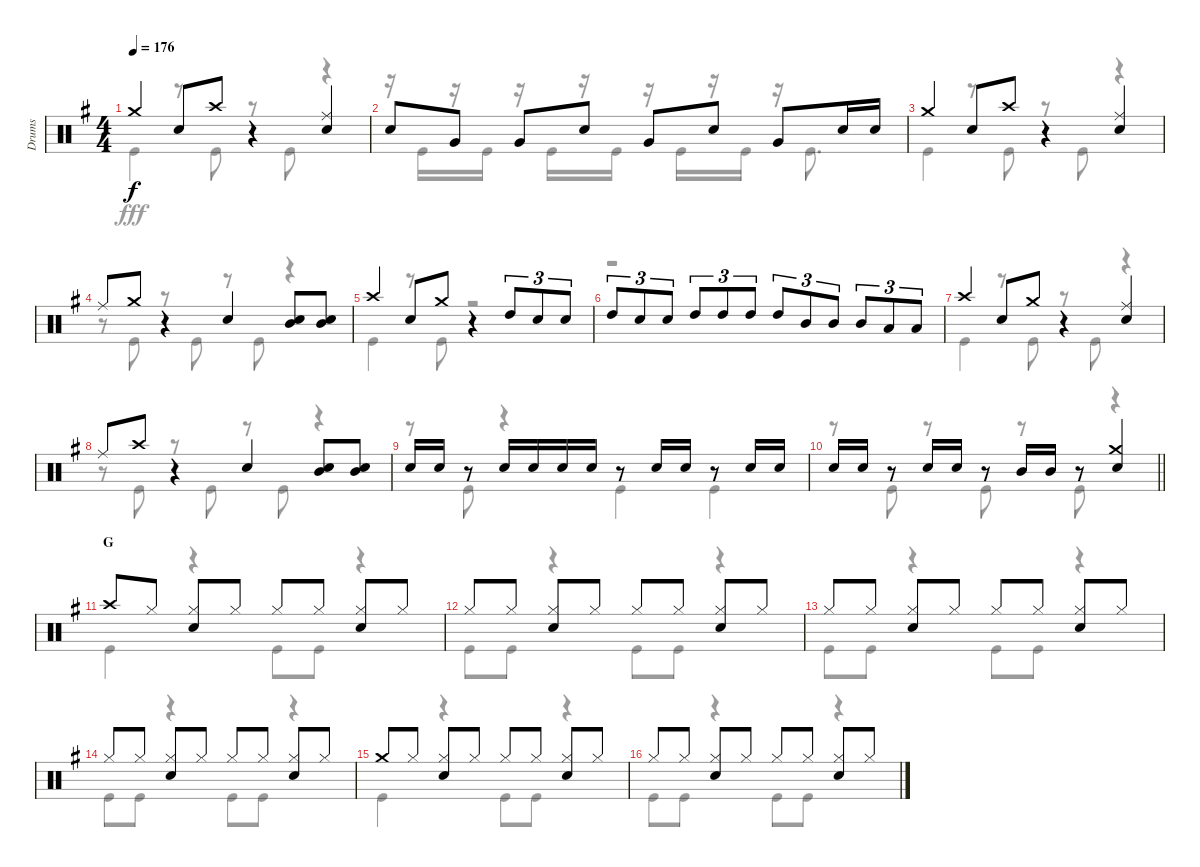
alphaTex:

\track ("Drums" "Drums") {instrument percussion}
\staff {score}
\articulation defaults
\voice
\ts (4 4)
\tempo 176
\clef neutral
\ks g "Crash medium (hit)".4{dy f} "Snare (hit) 2".8 "Crash high (hit)".8
r.4 ("Ride (middle)" "Snare (hit) 2").4 |
"Snare (hit) 2".8 "Very Low Tom (hit)".8 "Very Low Tom (hit)".8 "Snare (hit) 2".8 "Very Low Tom (hit)".8 "Snare (hit) 2".8 "Very Low Tom (hit)".8 "Snare (hit) 2".16 "Snare (hit) 2".16 |
"Crash medium (hit)".4 "Snare (hit) 2".8 "Crash high (hit)".8 r.4 ("Ride (middle)" "Snare (hit) 2").4 |
"Ride (middle)".8 "Crash medium (hit)".8 r.4 "Snare (hit) 2".4 ("Mid Tom (hit)" "Snare (hit) 2").8 ("Mid Tom (hit)" "Snare (hit) 2").8 |
"Crash high (hit)".4 "Snare (hit) 2".8 "Crash medium (hit)".8 r.4 "High Tom (hit)".8{tu (3 2)} "Snare (hit) 2".8{tu (3 2)} "Snare (hit) 2".8{tu (3 2)} |
"High Tom (hit)".8{tu (3 2)} "Snare (hit) 2".8{tu (3 2)} "Snare (hit) 2".8{tu (3 2)} "High Tom (hit)".8{tu (3 2)} "High Tom (hit)".8{tu (3 2)} "High Tom (hit)".8{tu (3 2)} "High Tom (hit)".8{tu (3 2)} "Mid Tom (hit)".8{tu (3 2)} "Mid Tom (hit)".8{tu (3 2)} "Mid Tom (hit)".8{tu (3 2)} "Low Tom (hit)".8{tu (3 2)} "Low Tom (hit)".8{tu (3 2)} |
"Crash high (hit)".4 "Snare (hit) 2".8 "Crash medium (hit)".8 r.4 ("Ride (middle)" "Snare (hit) 2").4 |
"Ride (middle)".8 "Crash high (hit)".8 r.4 "Snare (hit) 2".4 ("Mid Tom (hit)" "Snare (hit) 2").8 ("Mid Tom (hit)" "Snare (hit) 2").8 |
"Snare (hit) 2".16 "Snare (hit) 2".16 r.8 "Snare (hit) 2".16 "Snare (hit) 2".16 "Snare (hit) 2".16 "Snare (hit) 2".16 r.8 "Snare (hit) 2".16 "Snare (hit) 2".16 r.8 "Snare (hit) 2".16 "Snare (hit) 2".16 |
\barLineRight lightlight "Snare (hit) 2".16 "Snare (hit) 2".16
r.8 "Snare (hit) 2".16 "Snare (hit) 2".16 r.8 "Mid Tom (hit)".16 "Mid Tom (hit)".16 r.8 ("Crash medium (hit)" "Snare (hit) 2").4 |
\section ("" "G")
"Crash high (hit)".8 "Hi-Hat (closed)".8 ("Hi-Hat (closed)" "Snare (hit) 2").8 "Hi-Hat (closed)".8 "Hi-Hat (closed)".8 "Hi-Hat (closed)".8 ("Hi-Hat (closed)" "Snare (hit) 2").8 "Hi-Hat (closed)".8 |
"Hi-Hat (closed)".8 "Hi-Hat (closed)".8 ("Hi-Hat (closed)" "Snare (hit) 2").8 "Hi-Hat (closed)".8 "Hi-Hat (closed)".8 "Hi-Hat (closed)".8 ("Hi-Hat (closed)" "Snare (hit) 2").8 "Hi-Hat (closed)".8 |
"Hi-Hat (closed)".8 "Hi-Hat (closed)".8 ("Hi-Hat (closed)" "Snare (hit) 2").8 "Hi-Hat (closed)".8 "Hi-Hat (closed)".8 "Hi-Hat (closed)".8 ("Hi-Hat (closed)" "Snare (hit) 2").8 "Hi-Hat (closed)".8 |
"Hi-Hat (closed)".8 "Hi-Hat (closed)".8 ("Hi-Hat (closed)" "Snare (hit) 2").8 "Hi-Hat (closed)".8 "Hi-Hat (closed)".8 "Hi-Hat (closed)".8 ("Hi-Hat (closed)" "Snare (hit) 2").8 "Hi-Hat (closed)".8 |
"Crash medium (hit)".8 "Hi-Hat (closed)".8 ("Hi-Hat (closed)" "Snare (hit) 2").8 "Hi-Hat (closed)".8 "Hi-Hat (closed)".8 "Hi-Hat (closed)".8 ("Hi-Hat (closed)" "Snare (hit) 2").8 "Hi-Hat (closed)".8 |
"Hi-Hat (closed)".8 "Hi-Hat (closed)".8 ("Hi-Hat (closed)" "Snare (hit) 2").8 "Hi-Hat (closed)".8 "Hi-Hat (closed)".8 "Hi-Hat (closed)".8 ("Hi-Hat (closed)" "Snare (hit) 2").8 "Hi-Hat (closed)".8
\voice
\clef neutral
\ottava regular
\simile none
\ks g "Kick (hit)".4{dy fff}
r.8 "Kick (hit)".8 r.8 "Kick (hit)".8 r.4 |
r.16 "Kick (hit)".16 r.16 "Kick (hit)".16 r.16 "Kick (hit)".16 r.16 "Kick (hit)".16 r.16 "Kick (hit)".16 r.16 "Kick (hit)".16 r.16 "Kick (hit)".8{d} |
"Kick (hit)".4 r.8 "Kick (hit)".8 r.8 "Kick (hit)".8 r.4 |
r.8 "Kick (hit)".8 r.8 "Kick (hit)".8 r.8 "Kick (hit)".8 r.4 |
"Kick (hit)".4 r.8 "Kick (hit)".8 r.2 |
r.1 |
"Kick (hit)".4 r.8 "Kick (hit)".8 r.8 "Kick (hit)".8 r.4 |
r.8 "Kick (hit)".8 r.8 "Kick (hit)".8 r.8 "Kick (hit)".8 r.4 |
r.8 "Kick (hit)".8 r.4 "Kick (hit)".4 "Kick (hit)".4 |
\barLineRight lightlight
r.8 "Kick (hit)".8 r.8 "Kick (hit)".8 r.8 "Kick (hit)".8 r.4 |
"Kick (hit)".4 r.4 "Kick (hit)".8 "Kick (hit)".8 r.4 |
"Kick (hit)".8 "Kick (hit)".8 r.4 "Kick (hit)".8 "Kick (hit)".8 r.4 |
"Kick (hit)".8 "Kick (hit)".8 r.4 "Kick (hit)".8 "Kick (hit)".8 r.4 |
"Kick (hit)".8 "Kick (hit)".8 r.4 "Kick (hit)".8 "Kick (hit)".8 r.4 |
"Kick (hit)".4 r.4 "Kick (hit)".8 "Kick (hit)".8 r.4 |
"Kick (hit)".8 "Kick (hit)".8 r.4 "Kick (hit)".8 "Kick (hit)".8 r.4
